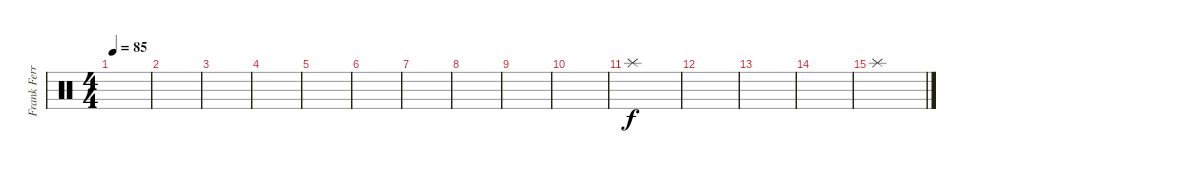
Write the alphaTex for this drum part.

\track ("Frank Ferrer" "Frank Ferr") {instrument percussion}
\staff {score}
\articulation defaults
\ts (4 4)
\tempo 85
\clef neutral
\ks c
|
|
|
|
|
|
|
|
|
|
"Splash (hit)".1 |
|
|
|
"Splash (hit)".1
